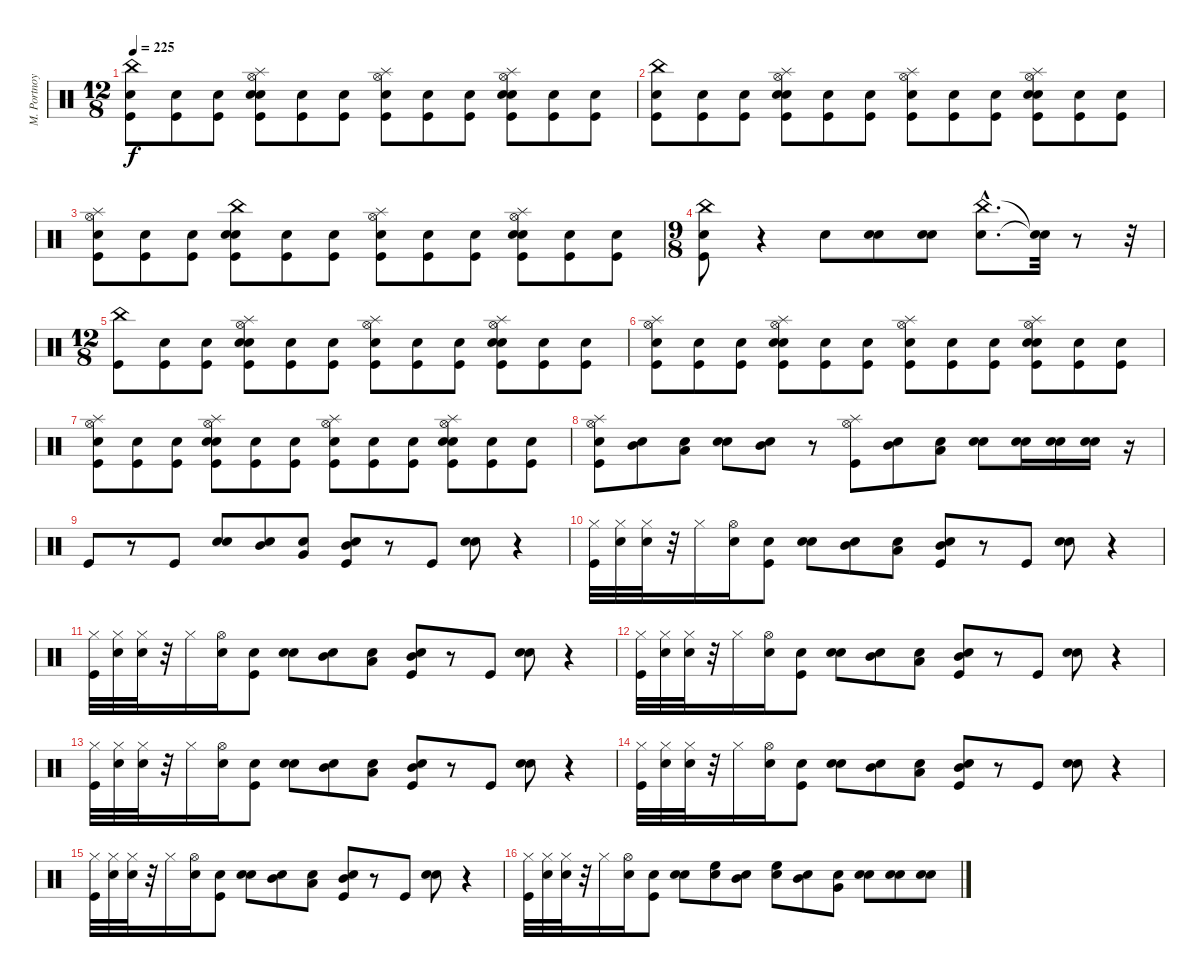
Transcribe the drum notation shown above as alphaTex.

\track ("M. Portnoy" "M. Portnoy") {instrument percussion}
\staff {score}
\articulation defaults
\ts (12 8)
\tempo 225
\clef neutral
\ks c
("Snare (hit)" "Kick (hit)" "China (hit)").8{dy f} ("Snare (hit)" "Kick (hit)").8 ("Snare (hit)" "Kick (hit)").8 ("Snare (hit)" "Kick (hit)" "Snare (hit) 2" "Hi-Hat (open)" "Splash (hit)").8 ("Snare (hit)" "Kick (hit)").8 ("Snare (hit)" "Kick (hit)").8 ("Snare (hit)" "Kick (hit)" "Hi-Hat (open)" "Splash (hit)").8 ("Snare (hit)" "Kick (hit)").8 ("Snare (hit)" "Kick (hit)").8 ("Snare (hit)" "Kick (hit)" "Snare (hit) 2" "Hi-Hat (open)" "Splash (hit)").8 ("Snare (hit)" "Kick (hit)").8 ("Snare (hit)" "Kick (hit)").8 |
("Snare (hit)" "Kick (hit)" "China (hit)").8 ("Snare (hit)" "Kick (hit)").8 ("Snare (hit)" "Kick (hit)").8 ("Snare (hit)" "Kick (hit)" "Snare (hit) 2" "Hi-Hat (open)" "Splash (hit)").8 ("Snare (hit)" "Kick (hit)").8 ("Snare (hit)" "Kick (hit)").8 ("Snare (hit)" "Kick (hit)" "Hi-Hat (open)" "Splash (hit)").8 ("Snare (hit)" "Kick (hit)").8 ("Snare (hit)" "Kick (hit)").8 ("Snare (hit)" "Kick (hit)" "Snare (hit) 2" "Hi-Hat (open)" "Splash (hit)").8 ("Snare (hit)" "Kick (hit)").8 ("Snare (hit)" "Kick (hit)").8 |
("Snare (hit)" "Kick (hit)" "Hi-Hat (open)" "Splash (hit)").8 ("Snare (hit)" "Kick (hit)").8 ("Snare (hit)" "Kick (hit)").8 ("Snare (hit)" "Kick (hit)" "Snare (hit) 2" "China (hit)").8 ("Snare (hit)" "Kick (hit)").8 ("Snare (hit)" "Kick (hit)").8 ("Snare (hit)" "Kick (hit)" "Hi-Hat (open)" "Splash (hit)").8 ("Snare (hit)" "Kick (hit)").8 ("Snare (hit)" "Kick (hit)").8 ("Snare (hit)" "Kick (hit)" "Snare (hit) 2" "Hi-Hat (open)" "Splash (hit)").8 ("Snare (hit)" "Kick (hit)").8 ("Snare (hit)" "Kick (hit)").8 |
\ts (9 8)
("Snare (hit)" "Kick (hit)" "China (hit)").8 r.4 "Snare (hit) 2".8 ("Snare (hit)" "Snare (hit) 2").8 ("Snare (hit)" "Snare (hit) 2").8 ("Snare (hit)"{hac} "China (hit)"{hac}).8{d} ("Snare (hit)"{t} "Snare (hit)"{t}).32 r.8 r.32 |
\ts (12 8)
("Kick (hit)" "China (hit)").8 ("Snare (hit)" "Kick (hit)").8 ("Snare (hit)" "Kick (hit)").8 ("Snare (hit)" "Kick (hit)" "Snare (hit) 2" "Hi-Hat (open)" "Splash (hit)").8 ("Snare (hit)" "Kick (hit)").8 ("Snare (hit)" "Kick (hit)").8 ("Snare (hit)" "Kick (hit)" "Hi-Hat (open)" "Splash (hit)").8 ("Snare (hit)" "Kick (hit)").8 ("Snare (hit)" "Kick (hit)").8 ("Snare (hit)" "Kick (hit)" "Snare (hit) 2" "Hi-Hat (open)" "Splash (hit)").8 ("Snare (hit)" "Kick (hit)").8 ("Snare (hit)" "Kick (hit)").8 |
("Snare (hit)" "Kick (hit)" "Hi-Hat (open)" "Splash (hit)").8 ("Snare (hit)" "Kick (hit)").8 ("Snare (hit)" "Kick (hit)").8 ("Snare (hit)" "Kick (hit)" "Snare (hit) 2" "Hi-Hat (open)" "Splash (hit)").8 ("Snare (hit)" "Kick (hit)").8 ("Snare (hit)" "Kick (hit)").8 ("Snare (hit)" "Kick (hit)" "Hi-Hat (open)" "Splash (hit)").8 ("Snare (hit)" "Kick (hit)").8 ("Snare (hit)" "Kick (hit)").8 ("Snare (hit)" "Kick (hit)" "Snare (hit) 2" "Hi-Hat (open)" "Splash (hit)").8 ("Snare (hit)" "Kick (hit)").8 ("Snare (hit)" "Kick (hit)").8 |
("Snare (hit)" "Kick (hit)" "Hi-Hat (open)" "Splash (hit)").8 ("Snare (hit)" "Kick (hit)").8 ("Snare (hit)" "Kick (hit)").8 ("Snare (hit)" "Kick (hit)" "Snare (hit) 2" "Hi-Hat (open)" "Splash (hit)").8 ("Snare (hit)" "Kick (hit)").8 ("Snare (hit)" "Kick (hit)").8 ("Snare (hit)" "Kick (hit)" "Hi-Hat (open)" "Splash (hit)").8 ("Snare (hit)" "Kick (hit)").8 ("Snare (hit)" "Kick (hit)").8 ("Snare (hit)" "Kick (hit)" "Snare (hit) 2" "Hi-Hat (open)" "Splash (hit)").8 ("Snare (hit)" "Kick (hit)").8 ("Snare (hit)" "Kick (hit)").8 |
("Snare (hit)" "Kick (hit)" "Hi-Hat (open)" "Splash (hit)").8 ("Snare (hit)" "Mid Tom (hit)").8 ("Snare (hit)" "Low Tom (hit)").8 ("Snare (hit)" "Snare (hit) 2").8 ("Snare (hit)" "Mid Tom (hit)").8 r.8 ("Kick (hit)" "Hi-Hat (open)" "Splash (hit)").8 ("Snare (hit)" "Mid Tom (hit)").8 ("Snare (hit)" "Low Tom (hit)").8 ("Snare (hit)" "Snare (hit) 2").8 ("Snare (hit)" "Snare (hit) 2").16 ("Snare (hit)" "Snare (hit) 2").16 ("Snare (hit)" "Snare (hit) 2").16 r.16 |
"Kick (hit)".8 r.8 "Kick (hit)".8 ("Snare (hit)" "Snare (hit) 2").8 ("Snare (hit)" "Mid Tom (hit)").8 ("Snare (hit)" "Very Low Tom (hit)").8 ("Snare (hit)" "Kick (hit)" "Mid Tom (hit)").8 r.8 "Kick (hit)".8 ("Snare (hit)" "Snare (hit) 2").8 r.4 |
("Kick (hit)" "Hi-Hat (closed)").32 ("Snare (hit)" "Hi-Hat (closed)").32 ("Snare (hit)" "Hi-Hat (closed)").32 r.32 "Hi-Hat (closed)".16 ("Snare (hit)" "Hi-Hat (open)").16 ("Snare (hit)" "Kick (hit)").8 ("Snare (hit)" "Snare (hit) 2").8 ("Snare (hit)" "Mid Tom (hit)").8 ("Snare (hit)" "Low Tom (hit)").8 ("Snare (hit)" "Kick (hit)" "Mid Tom (hit)").8 r.8 "Kick (hit)".8 ("Snare (hit)" "Snare (hit) 2").8 r.4 |
("Kick (hit)" "Hi-Hat (closed)").32 ("Snare (hit)" "Hi-Hat (closed)").32 ("Snare (hit)" "Hi-Hat (closed)").32 r.32 "Hi-Hat (closed)".16 ("Snare (hit)" "Hi-Hat (open)").16 ("Snare (hit)" "Kick (hit)").8 ("Snare (hit)" "Snare (hit) 2").8 ("Snare (hit)" "Mid Tom (hit)").8 ("Snare (hit)" "Low Tom (hit)").8 ("Snare (hit)" "Kick (hit)" "Mid Tom (hit)").8 r.8 "Kick (hit)".8 ("Snare (hit)" "Snare (hit) 2").8 r.4 |
("Kick (hit)" "Hi-Hat (closed)").32 ("Snare (hit)" "Hi-Hat (closed)").32 ("Snare (hit)" "Hi-Hat (closed)").32 r.32 "Hi-Hat (closed)".16 ("Snare (hit)" "Hi-Hat (open)").16 ("Snare (hit)" "Kick (hit)").8 ("Snare (hit)" "Snare (hit) 2").8 ("Snare (hit)" "Mid Tom (hit)").8 ("Snare (hit)" "Low Tom (hit)").8 ("Snare (hit)" "Kick (hit)" "Mid Tom (hit)").8 r.8 "Kick (hit)".8 ("Snare (hit)" "Snare (hit) 2").8 r.4 |
("Kick (hit)" "Hi-Hat (closed)").32 ("Snare (hit)" "Hi-Hat (closed)").32 ("Snare (hit)" "Hi-Hat (closed)").32 r.32 "Hi-Hat (closed)".16 ("Snare (hit)" "Hi-Hat (open)").16 ("Snare (hit)" "Kick (hit)").8 ("Snare (hit)" "Snare (hit) 2").8 ("Snare (hit)" "Mid Tom (hit)").8 ("Snare (hit)" "Low Tom (hit)").8 ("Snare (hit)" "Kick (hit)" "Mid Tom (hit)").8 r.8 "Kick (hit)".8 ("Snare (hit)" "Snare (hit) 2").8 r.4 |
("Kick (hit)" "Hi-Hat (closed)").32 ("Snare (hit)" "Hi-Hat (closed)").32 ("Snare (hit)" "Hi-Hat (closed)").32 r.32 "Hi-Hat (closed)".16 ("Snare (hit)" "Hi-Hat (open)").16 ("Snare (hit)" "Kick (hit)").8 ("Snare (hit)" "Snare (hit) 2").8 ("Snare (hit)" "Mid Tom (hit)").8 ("Snare (hit)" "Low Tom (hit)").8 ("Snare (hit)" "Kick (hit)" "Mid Tom (hit)").8 r.8 "Kick (hit)".8 ("Snare (hit)" "Snare (hit) 2").8 r.4 |
("Kick (hit)" "Hi-Hat (closed)").32 ("Snare (hit)" "Hi-Hat (closed)").32 ("Snare (hit)" "Hi-Hat (closed)").32 r.32 "Hi-Hat (closed)".16 ("Snare (hit)" "Hi-Hat (open)").16 ("Snare (hit)" "Kick (hit)").8 ("Snare (hit)" "Snare (hit) 2").8 ("Snare (hit)" "Mid Tom (hit)").8 ("Snare (hit)" "Low Tom (hit)").8 ("Snare (hit)" "Kick (hit)" "Mid Tom (hit)").8 r.8 "Kick (hit)".8 ("Snare (hit)" "Snare (hit) 2").8 r.4 |
("Kick (hit)" "Hi-Hat (closed)").32 ("Snare (hit)" "Hi-Hat (closed)").32 ("Snare (hit)" "Hi-Hat (closed)").32 r.32 "Hi-Hat (closed)".16 ("Snare (hit)" "Hi-Hat (open)").16 ("Snare (hit)" "Kick (hit)").8 ("Snare (hit)" "Snare (hit) 2").8 ("Snare (hit)" "High Floor Tom (hit)").8 ("Snare (hit)" "Mid Tom (hit)").8 ("Snare (hit)" "High Floor Tom (hit)").8 ("Snare (hit)" "Mid Tom (hit)").8 ("Snare (hit)" "Very Low Tom (hit)").8 ("Snare (hit)" "Snare (hit) 2").8 ("Snare (hit)" "Snare (hit) 2").8 ("Snare (hit)" "Snare (hit) 2").8
